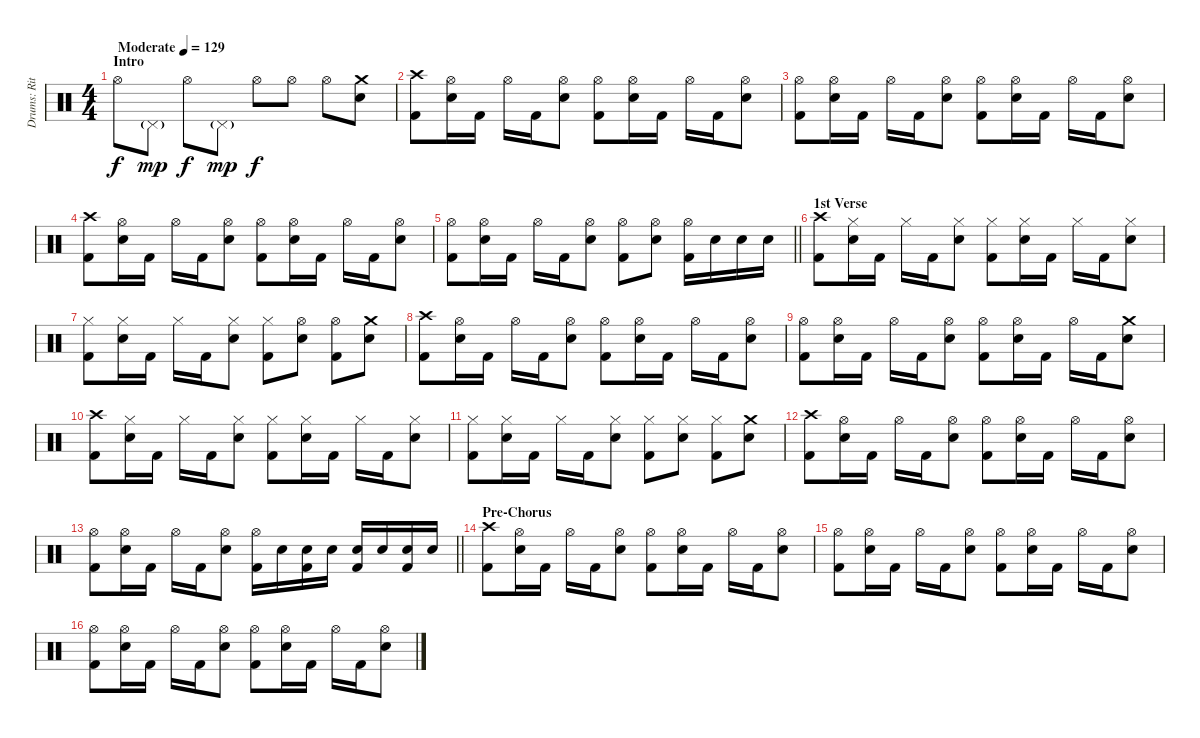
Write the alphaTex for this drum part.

\track ("Drums: Ritsu Tainaka" "Drums: Rit") {instrument percussion}
\staff {score}
\articulation defaults
\ts (4 4)
\section ("" "Intro")
\tempo (129 "Moderate")
\clef neutral
\ks c "Hi-Hat (open)".8{dy f} "Pedal Hi-Hat (hit)"{g}.8{dy mp} "Hi-Hat (open)".8{dy f} "Pedal Hi-Hat (hit)"{g}.8{dy mp} "Hi-Hat (open)".8{dy f} "Hi-Hat (open)".8 "Hi-Hat (open)".8
("Crash medium (hit)" "Electric Snare (hit)").8 |
("Crash high (hit)" "Kick (hit) 2").8 ("Hi-Hat (open)" "Electric Snare (hit)").16 "Kick (hit) 2".16 "Hi-Hat (open)".16 "Kick (hit) 2".16 ("Hi-Hat (open)" "Electric Snare (hit)").8 ("Hi-Hat (open)" "Kick (hit) 2").8 ("Hi-Hat (open)" "Electric Snare (hit)").16 "Kick (hit) 2".16 "Hi-Hat (open)".16 "Kick (hit) 2".16 ("Hi-Hat (open)" "Electric Snare (hit)").8 |
("Hi-Hat (open)" "Kick (hit) 2").8 ("Hi-Hat (open)" "Electric Snare (hit)").16 "Kick (hit) 2".16 "Hi-Hat (open)".16 "Kick (hit) 2".16 ("Hi-Hat (open)" "Electric Snare (hit)").8 ("Hi-Hat (open)" "Kick (hit) 2").8 ("Hi-Hat (open)" "Electric Snare (hit)").16 "Kick (hit) 2".16 "Hi-Hat (open)".16 "Kick (hit) 2".16 ("Hi-Hat (open)" "Electric Snare (hit)").8 |
("Crash high (hit)" "Kick (hit) 2").8 ("Hi-Hat (open)" "Electric Snare (hit)").16 "Kick (hit) 2".16 "Hi-Hat (open)".16 "Kick (hit) 2".16 ("Hi-Hat (open)" "Electric Snare (hit)").8 ("Hi-Hat (open)" "Kick (hit) 2").8 ("Hi-Hat (open)" "Electric Snare (hit)").16 "Kick (hit) 2".16 "Hi-Hat (open)".16 "Kick (hit) 2".16 ("Hi-Hat (open)" "Electric Snare (hit)").8 |
\barLineRight lightlight
("Hi-Hat (open)" "Kick (hit) 2").8 ("Hi-Hat (open)" "Electric Snare (hit)").16 "Kick (hit) 2".16 "Hi-Hat (open)".16 "Kick (hit) 2".16 ("Hi-Hat (open)" "Electric Snare (hit)").8 ("Hi-Hat (open)" "Kick (hit) 2").8 ("Hi-Hat (open)" "Electric Snare (hit)").8 ("Hi-Hat (open)" "Kick (hit) 2").16 "Electric Snare (hit)".16 "Electric Snare (hit)".16 "Electric Snare (hit)".16 |
\section ("" "1st Verse")
("Crash high (hit)" "Kick (hit) 2").8 ("Hi-Hat (closed)" "Electric Snare (hit)").16 "Kick (hit) 2".16 "Hi-Hat (closed)".16 "Kick (hit) 2".16 ("Hi-Hat (closed)" "Electric Snare (hit)").8 ("Hi-Hat (closed)" "Kick (hit) 2").8 ("Hi-Hat (closed)" "Electric Snare (hit)").16 "Kick (hit) 2".16 "Hi-Hat (closed)".16 "Kick (hit) 2".16 ("Hi-Hat (closed)" "Electric Snare (hit)").8 |
("Hi-Hat (closed)" "Kick (hit) 2").8 ("Hi-Hat (closed)" "Electric Snare (hit)").16 "Kick (hit) 2".16 "Hi-Hat (closed)".16 "Kick (hit) 2".16 ("Hi-Hat (closed)" "Electric Snare (hit)").8 ("Hi-Hat (closed)" "Kick (hit) 2").8 ("Hi-Hat (open)" "Electric Snare (hit)").8 ("Hi-Hat (open)" "Kick (hit) 2").8 ("Crash medium (hit)" "Electric Snare (hit)").8 |
("Crash high (hit)" "Kick (hit) 2").8 ("Hi-Hat (open)" "Electric Snare (hit)").16 "Kick (hit) 2".16 "Hi-Hat (open)".16 "Kick (hit) 2".16 ("Hi-Hat (open)" "Electric Snare (hit)").8 ("Hi-Hat (open)" "Kick (hit) 2").8 ("Hi-Hat (open)" "Electric Snare (hit)").16 "Kick (hit) 2".16 "Hi-Hat (open)".16 "Kick (hit) 2".16 ("Hi-Hat (open)" "Electric Snare (hit)").8 |
("Hi-Hat (open)" "Kick (hit) 2").8 ("Hi-Hat (open)" "Electric Snare (hit)").16 "Kick (hit) 2".16 "Hi-Hat (open)".16 "Kick (hit) 2".16 ("Hi-Hat (open)" "Electric Snare (hit)").8 ("Hi-Hat (open)" "Kick (hit) 2").8 ("Hi-Hat (open)" "Electric Snare (hit)").16 "Kick (hit) 2".16 "Hi-Hat (open)".16 "Kick (hit) 2".16 ("Crash medium (hit)" "Electric Snare (hit)").8 |
("Crash high (hit)" "Kick (hit) 2").8 ("Hi-Hat (closed)" "Electric Snare (hit)").16 "Kick (hit) 2".16 "Hi-Hat (closed)".16 "Kick (hit) 2".16 ("Hi-Hat (closed)" "Electric Snare (hit)").8 ("Hi-Hat (closed)" "Kick (hit) 2").8 ("Hi-Hat (closed)" "Electric Snare (hit)").16 "Kick (hit) 2".16 "Hi-Hat (closed)".16 "Kick (hit) 2".16 ("Hi-Hat (closed)" "Electric Snare (hit)").8 |
("Hi-Hat (closed)" "Kick (hit) 2").8 ("Hi-Hat (closed)" "Electric Snare (hit)").16 "Kick (hit) 2".16 "Hi-Hat (closed)".16 "Kick (hit) 2".16 ("Hi-Hat (closed)" "Electric Snare (hit)").8 ("Hi-Hat (closed)" "Kick (hit) 2").8 ("Hi-Hat (closed)" "Electric Snare (hit)").8 ("Hi-Hat (closed)" "Kick (hit) 2").8 ("Crash medium (hit)" "Electric Snare (hit)").8 |
("Crash high (hit)" "Kick (hit) 2").8 ("Hi-Hat (open)" "Electric Snare (hit)").16 "Kick (hit) 2".16 "Hi-Hat (open)".16 "Kick (hit) 2".16 ("Hi-Hat (open)" "Electric Snare (hit)").8 ("Hi-Hat (open)" "Kick (hit) 2").8 ("Hi-Hat (open)" "Electric Snare (hit)").16 "Kick (hit) 2".16 "Hi-Hat (open)".16 "Kick (hit) 2".16 ("Hi-Hat (open)" "Electric Snare (hit)").8 |
\barLineRight lightlight
("Hi-Hat (open)" "Kick (hit) 2").8 ("Hi-Hat (open)" "Electric Snare (hit)").16 "Kick (hit) 2".16 "Hi-Hat (open)".16 "Kick (hit) 2".16 ("Hi-Hat (open)" "Electric Snare (hit)").8 ("Hi-Hat (open)" "Kick (hit) 2").16 "Electric Snare (hit)".16 ("Electric Snare (hit)" "Kick (hit) 2").16 "Electric Snare (hit)".16 ("Electric Snare (hit)" "Kick (hit) 2").16 "Electric Snare (hit)".16 ("Electric Snare (hit)" "Kick (hit) 2").16 "Electric Snare (hit)".16 |
\section ("" "Pre-Chorus")
("Crash high (hit)" "Kick (hit) 2").8 ("Hi-Hat (open)" "Electric Snare (hit)").16 "Kick (hit) 2".16 "Hi-Hat (open)".16 "Kick (hit) 2".16 ("Hi-Hat (open)" "Electric Snare (hit)").8 ("Hi-Hat (open)" "Kick (hit) 2").8 ("Hi-Hat (open)" "Electric Snare (hit)").16 "Kick (hit) 2".16 "Hi-Hat (open)".16 "Kick (hit) 2".16 ("Hi-Hat (open)" "Electric Snare (hit)").8 |
("Hi-Hat (open)" "Kick (hit) 2").8 ("Hi-Hat (open)" "Electric Snare (hit)").16 "Kick (hit) 2".16 "Hi-Hat (open)".16 "Kick (hit) 2".16 ("Hi-Hat (open)" "Electric Snare (hit)").8 ("Hi-Hat (open)" "Kick (hit) 2").8 ("Hi-Hat (open)" "Electric Snare (hit)").16 "Kick (hit) 2".16 "Hi-Hat (open)".16 "Kick (hit) 2".16 ("Hi-Hat (open)" "Electric Snare (hit)").8 |
("Hi-Hat (open)" "Kick (hit) 2").8 ("Hi-Hat (open)" "Electric Snare (hit)").16 "Kick (hit) 2".16 "Hi-Hat (open)".16 "Kick (hit) 2".16 ("Hi-Hat (open)" "Electric Snare (hit)").8 ("Hi-Hat (open)" "Kick (hit) 2").8 ("Hi-Hat (open)" "Electric Snare (hit)").16 "Kick (hit) 2".16 "Hi-Hat (open)".16 "Kick (hit) 2".16 ("Hi-Hat (open)" "Electric Snare (hit)").8
